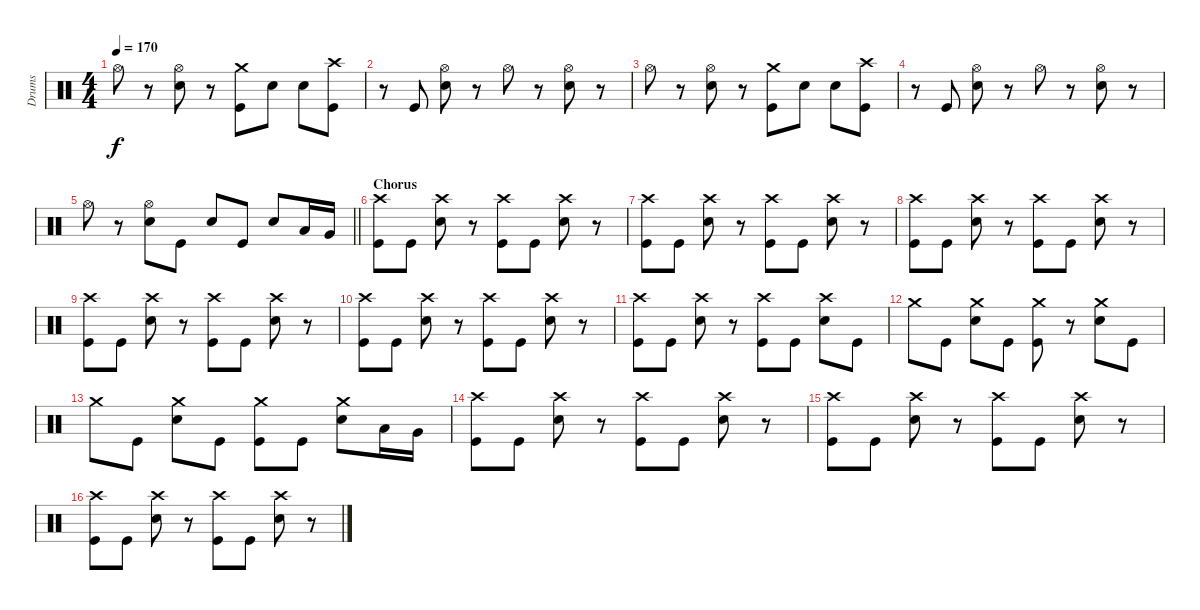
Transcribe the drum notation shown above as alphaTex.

\track ("Drums" "Drums") {instrument percussion}
\staff {score}
\articulation defaults
\ts (4 4)
\tempo 170
\clef neutral
\ks c "Hi-Hat (open)".8{dy f}
r.8 ("Hi-Hat (open)" "Snare (hit) 2").8 r.8 ("Crash medium (hit)" "Kick (hit)").8 "Snare (hit) 2".8 "Snare (hit) 2".8 ("Crash high (hit)" "Kick (hit)").8 |
r.8 "Kick (hit)".8 ("Hi-Hat (open)" "Snare (hit) 2").8 r.8 "Hi-Hat (open)".8 r.8 ("Hi-Hat (open)" "Snare (hit) 2").8 r.8 |
"Hi-Hat (open)".8 r.8 ("Hi-Hat (open)" "Snare (hit) 2").8 r.8 ("Crash medium (hit)" "Kick (hit)").8 "Snare (hit) 2".8 "Snare (hit) 2".8 ("Crash high (hit)" "Kick (hit)").8 |
r.8 "Kick (hit)".8 ("Hi-Hat (open)" "Snare (hit) 2").8 r.8 "Hi-Hat (open)".8 r.8 ("Hi-Hat (open)" "Snare (hit) 2").8 r.8 |
\barLineRight lightlight "Hi-Hat (open)".8
r.8 ("Hi-Hat (open)" "Snare (hit) 2").8 "Kick (hit)".8 "Snare (hit) 2".8 "Kick (hit)".8 "Snare (hit) 2".8 "Low Tom (hit)".16 "Very Low Tom (hit)".16 |
\section ("" "Chorus")
("Crash high (hit)" "Kick (hit)").8 "Kick (hit)".8 ("Crash high (hit)" "Snare (hit) 2").8 r.8 ("Crash high (hit)" "Kick (hit)").8 "Kick (hit)".8 ("Crash high (hit)" "Snare (hit) 2").8 r.8 |
("Crash high (hit)" "Kick (hit)").8 "Kick (hit)".8 ("Crash high (hit)" "Snare (hit) 2").8 r.8 ("Crash high (hit)" "Kick (hit)").8 "Kick (hit)".8 ("Crash high (hit)" "Snare (hit) 2").8 r.8 |
("Crash high (hit)" "Kick (hit)").8 "Kick (hit)".8 ("Crash high (hit)" "Snare (hit) 2").8 r.8 ("Crash high (hit)" "Kick (hit)").8 "Kick (hit)".8 ("Crash high (hit)" "Snare (hit) 2").8 r.8 |
("Crash high (hit)" "Kick (hit)").8 "Kick (hit)".8 ("Crash high (hit)" "Snare (hit) 2").8 r.8 ("Crash high (hit)" "Kick (hit)").8 "Kick (hit)".8 ("Crash high (hit)" "Snare (hit) 2").8 r.8 |
("Crash high (hit)" "Kick (hit)").8 "Kick (hit)".8 ("Crash high (hit)" "Snare (hit) 2").8 r.8 ("Crash high (hit)" "Kick (hit)").8 "Kick (hit)".8 ("Crash high (hit)" "Snare (hit) 2").8 r.8 |
("Crash high (hit)" "Kick (hit)").8 "Kick (hit)".8 ("Crash high (hit)" "Snare (hit) 2").8 r.8 ("Crash high (hit)" "Kick (hit)").8 "Kick (hit)".8 ("Crash high (hit)" "Snare (hit) 2").8 "Kick (hit)".8 |
"Crash medium (hit)".8 "Kick (hit)".8 ("Crash medium (hit)" "Snare (hit) 2").8 "Kick (hit)".8 ("Crash medium (hit)" "Kick (hit)").8 r.8 ("Crash medium (hit)" "Snare (hit) 2").8 "Kick (hit)".8 |
"Crash medium (hit)".8 "Kick (hit)".8 ("Crash medium (hit)" "Snare (hit) 2").8 "Kick (hit)".8 ("Crash medium (hit)" "Kick (hit)").8 "Kick (hit)".8 ("Crash medium (hit)" "Snare (hit) 2").8 "Low Tom (hit)".16 "Very Low Tom (hit)".16 |
("Crash high (hit)" "Kick (hit)").8 "Kick (hit)".8 ("Crash high (hit)" "Snare (hit) 2").8 r.8 ("Crash high (hit)" "Kick (hit)").8 "Kick (hit)".8 ("Crash high (hit)" "Snare (hit) 2").8 r.8 |
("Crash high (hit)" "Kick (hit)").8 "Kick (hit)".8 ("Crash high (hit)" "Snare (hit) 2").8 r.8 ("Crash high (hit)" "Kick (hit)").8 "Kick (hit)".8 ("Crash high (hit)" "Snare (hit) 2").8 r.8 |
("Crash high (hit)" "Kick (hit)").8 "Kick (hit)".8 ("Crash high (hit)" "Snare (hit) 2").8 r.8 ("Crash high (hit)" "Kick (hit)").8 "Kick (hit)".8 ("Crash high (hit)" "Snare (hit) 2").8 r.8
